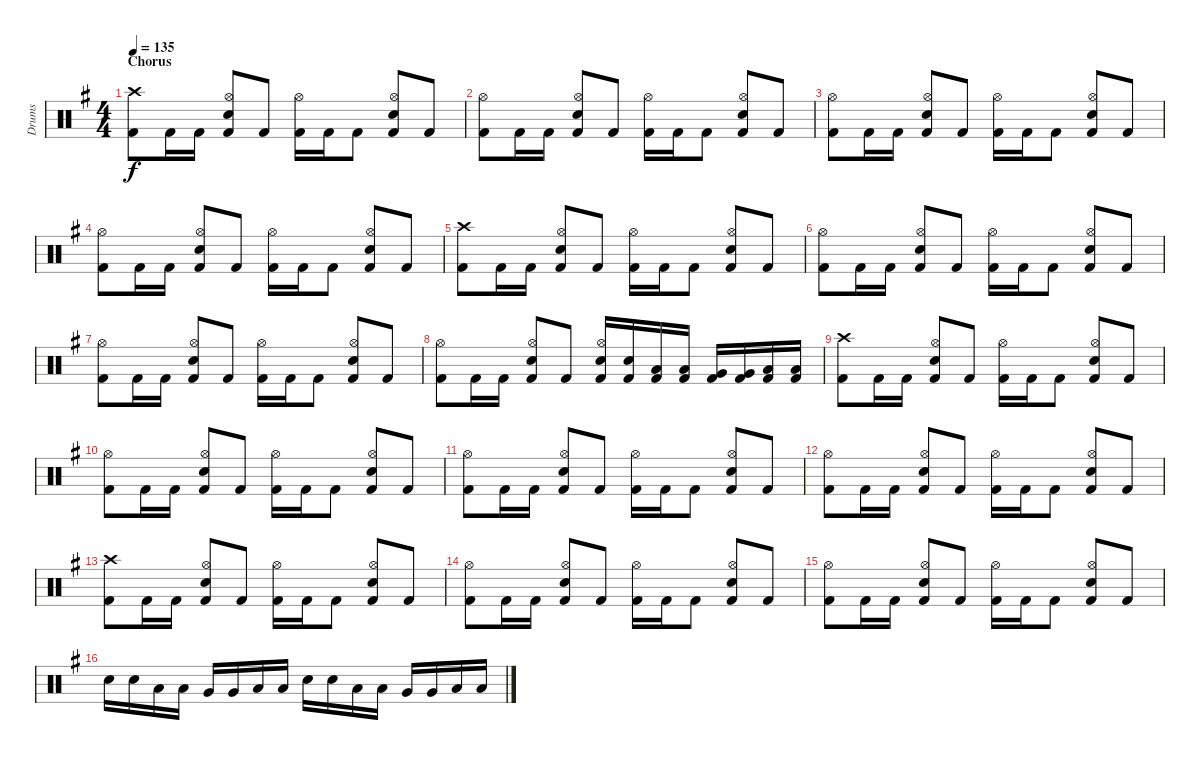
\track ("Drums" "Drums") {instrument percussion}
\staff {score}
\articulation defaults
\ts (4 4)
\section ("" "Chorus")
\tempo 135
\clef neutral
\ks eminor
("Crash high (hit)" "Kick (hit) 2").8{dy f} "Kick (hit) 2".16 "Kick (hit) 2".16 ("Hi-Hat (open)" "Snare (hit) 2" "Kick (hit) 2").8 "Kick (hit) 2".8 ("Hi-Hat (open)" "Kick (hit) 2").16 "Kick (hit) 2".16 "Kick (hit) 2".8 ("Hi-Hat (open)" "Snare (hit) 2" "Kick (hit) 2").8 "Kick (hit) 2".8 |
("Hi-Hat (open)" "Kick (hit) 2").8 "Kick (hit) 2".16 "Kick (hit) 2".16 ("Hi-Hat (open)" "Snare (hit) 2" "Kick (hit) 2").8 "Kick (hit) 2".8 ("Hi-Hat (open)" "Kick (hit) 2").16 "Kick (hit) 2".16 "Kick (hit) 2".8 ("Hi-Hat (open)" "Snare (hit) 2" "Kick (hit) 2").8 "Kick (hit) 2".8 |
("Hi-Hat (open)" "Kick (hit) 2").8 "Kick (hit) 2".16 "Kick (hit) 2".16 ("Hi-Hat (open)" "Snare (hit) 2" "Kick (hit) 2").8 "Kick (hit) 2".8 ("Hi-Hat (open)" "Kick (hit) 2").16 "Kick (hit) 2".16 "Kick (hit) 2".8 ("Hi-Hat (open)" "Snare (hit) 2" "Kick (hit) 2").8 "Kick (hit) 2".8 |
("Hi-Hat (open)" "Kick (hit) 2").8 "Kick (hit) 2".16 "Kick (hit) 2".16 ("Hi-Hat (open)" "Snare (hit) 2" "Kick (hit) 2").8 "Kick (hit) 2".8 ("Hi-Hat (open)" "Kick (hit) 2").16 "Kick (hit) 2".16 "Kick (hit) 2".8 ("Hi-Hat (open)" "Snare (hit) 2" "Kick (hit) 2").8 "Kick (hit) 2".8 |
("Crash high (hit)" "Kick (hit) 2").8 "Kick (hit) 2".16 "Kick (hit) 2".16 ("Hi-Hat (open)" "Snare (hit) 2" "Kick (hit) 2").8 "Kick (hit) 2".8 ("Hi-Hat (open)" "Kick (hit) 2").16 "Kick (hit) 2".16 "Kick (hit) 2".8 ("Hi-Hat (open)" "Snare (hit) 2" "Kick (hit) 2").8 "Kick (hit) 2".8 |
("Hi-Hat (open)" "Kick (hit) 2").8 "Kick (hit) 2".16 "Kick (hit) 2".16 ("Hi-Hat (open)" "Snare (hit) 2" "Kick (hit) 2").8 "Kick (hit) 2".8 ("Hi-Hat (open)" "Kick (hit) 2").16 "Kick (hit) 2".16 "Kick (hit) 2".8 ("Hi-Hat (open)" "Snare (hit) 2" "Kick (hit) 2").8 "Kick (hit) 2".8 |
("Hi-Hat (open)" "Kick (hit) 2").8 "Kick (hit) 2".16 "Kick (hit) 2".16 ("Hi-Hat (open)" "Snare (hit) 2" "Kick (hit) 2").8 "Kick (hit) 2".8 ("Hi-Hat (open)" "Kick (hit) 2").16 "Kick (hit) 2".16 "Kick (hit) 2".8 ("Hi-Hat (open)" "Snare (hit) 2" "Kick (hit) 2").8 "Kick (hit) 2".8 |
("Hi-Hat (open)" "Kick (hit) 2").8 "Kick (hit) 2".16 "Kick (hit) 2".16 ("Hi-Hat (open)" "Snare (hit) 2" "Kick (hit) 2").8 "Kick (hit) 2".8 ("Hi-Hat (open)" "Snare (hit) 2" "Kick (hit) 2").16 ("Snare (hit) 2" "Kick (hit) 2").16 ("Low Tom (hit)" "Kick (hit) 2").16 ("Low Tom (hit)" "Kick (hit) 2").16 ("Very Low Tom (hit)" "Kick (hit) 2").16 ("Very Low Tom (hit)" "Kick (hit) 2").16 ("Low Floor Tom (hit)" "Kick (hit) 2").16 ("Low Floor Tom (hit)" "Kick (hit) 2").16 |
("Crash high (hit)" "Kick (hit) 2").8 "Kick (hit) 2".16 "Kick (hit) 2".16 ("Hi-Hat (open)" "Snare (hit) 2" "Kick (hit) 2").8 "Kick (hit) 2".8 ("Hi-Hat (open)" "Kick (hit) 2").16 "Kick (hit) 2".16 "Kick (hit) 2".8 ("Hi-Hat (open)" "Snare (hit) 2" "Kick (hit) 2").8 "Kick (hit) 2".8 |
("Hi-Hat (open)" "Kick (hit) 2").8 "Kick (hit) 2".16 "Kick (hit) 2".16 ("Hi-Hat (open)" "Snare (hit) 2" "Kick (hit) 2").8 "Kick (hit) 2".8 ("Hi-Hat (open)" "Kick (hit) 2").16 "Kick (hit) 2".16 "Kick (hit) 2".8 ("Hi-Hat (open)" "Snare (hit) 2" "Kick (hit) 2").8 "Kick (hit) 2".8 |
("Hi-Hat (open)" "Kick (hit) 2").8 "Kick (hit) 2".16 "Kick (hit) 2".16 ("Hi-Hat (open)" "Snare (hit) 2" "Kick (hit) 2").8 "Kick (hit) 2".8 ("Hi-Hat (open)" "Kick (hit) 2").16 "Kick (hit) 2".16 "Kick (hit) 2".8 ("Hi-Hat (open)" "Snare (hit) 2" "Kick (hit) 2").8 "Kick (hit) 2".8 |
("Hi-Hat (open)" "Kick (hit) 2").8 "Kick (hit) 2".16 "Kick (hit) 2".16 ("Hi-Hat (open)" "Snare (hit) 2" "Kick (hit) 2").8 "Kick (hit) 2".8 ("Hi-Hat (open)" "Kick (hit) 2").16 "Kick (hit) 2".16 "Kick (hit) 2".8 ("Hi-Hat (open)" "Snare (hit) 2" "Kick (hit) 2").8 "Kick (hit) 2".8 |
("Crash high (hit)" "Kick (hit) 2").8 "Kick (hit) 2".16 "Kick (hit) 2".16 ("Hi-Hat (open)" "Snare (hit) 2" "Kick (hit) 2").8 "Kick (hit) 2".8 ("Hi-Hat (open)" "Kick (hit) 2").16 "Kick (hit) 2".16 "Kick (hit) 2".8 ("Hi-Hat (open)" "Snare (hit) 2" "Kick (hit) 2").8 "Kick (hit) 2".8 |
("Hi-Hat (open)" "Kick (hit) 2").8 "Kick (hit) 2".16 "Kick (hit) 2".16 ("Hi-Hat (open)" "Snare (hit) 2" "Kick (hit) 2").8 "Kick (hit) 2".8 ("Hi-Hat (open)" "Kick (hit) 2").16 "Kick (hit) 2".16 "Kick (hit) 2".8 ("Hi-Hat (open)" "Snare (hit) 2" "Kick (hit) 2").8 "Kick (hit) 2".8 |
("Hi-Hat (open)" "Kick (hit) 2").8 "Kick (hit) 2".16 "Kick (hit) 2".16 ("Hi-Hat (open)" "Snare (hit) 2" "Kick (hit) 2").8 "Kick (hit) 2".8 ("Hi-Hat (open)" "Kick (hit) 2").16 "Kick (hit) 2".16 "Kick (hit) 2".8 ("Hi-Hat (open)" "Snare (hit) 2" "Kick (hit) 2").8 "Kick (hit) 2".8 |
"Snare (hit) 2".16 "Snare (hit) 2".16 "Low Tom (hit)".16 "Low Tom (hit)".16 "Very Low Tom (hit)".16 "Very Low Tom (hit)".16 "Low Floor Tom (hit)".16 "Low Floor Tom (hit)".16 "Snare (hit) 2".16 "Snare (hit) 2".16 "Low Tom (hit)".16 "Low Tom (hit)".16 "Very Low Tom (hit)".16 "Very Low Tom (hit)".16 "Low Floor Tom (hit)".16 "Low Floor Tom (hit)".16
